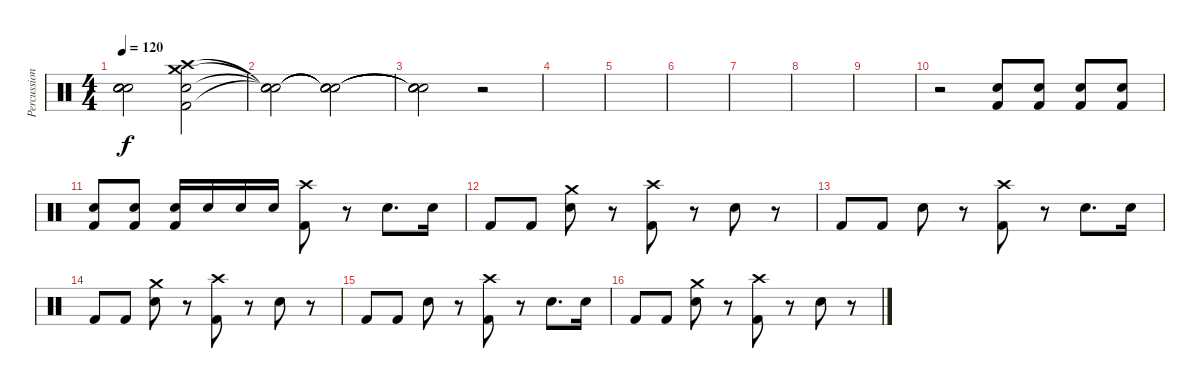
\track ("Percussions" "Percussion") {instrument percussion}
\staff {score}
\articulation defaults
\ts (4 4)
\tempo 120
\clef neutral
\ks c
("Snare (hit)"{t} "Snare (hit)"{t} "Snare (hit)"{t} "Snare (hit)"{t}).2{dy f} ("Crash medium (hit)" "Crash high (hit)" "Electric Snare (hit)" "Kick (hit) 2").2 |
("Snare (hit)"{t} "Snare (hit)"{t} "Snare (hit)"{t} "Snare (hit)"{t}).2 ("Snare (hit)"{t} "Snare (hit)"{t} "Snare (hit)"{t} "Snare (hit)"{t}).2 |
("Snare (hit)"{t} "Snare (hit)"{t} "Snare (hit)"{t} "Snare (hit)"{t}).2 r.2 |
|
|
|
|
|
|
r.2 ("Electric Snare (hit)" "Kick (hit) 2").8 ("Electric Snare (hit)" "Kick (hit) 2").8 ("Electric Snare (hit)" "Kick (hit) 2").8 ("Electric Snare (hit)" "Kick (hit) 2").8 |
("Electric Snare (hit)" "Kick (hit) 2").8 ("Electric Snare (hit)" "Kick (hit) 2").8 ("Electric Snare (hit)" "Kick (hit) 2").16 "Electric Snare (hit)".16 "Electric Snare (hit)".16 "Electric Snare (hit)".16 ("Crash high (hit)" "Kick (hit) 2").8 r.8 "Electric Snare (hit)".8{d} "Electric Snare (hit)".16 |
"Kick (hit) 2".8 "Kick (hit) 2".8 ("Crash medium (hit)" "Electric Snare (hit)").8 r.8 ("Crash high (hit)" "Kick (hit) 2").8 r.8 "Electric Snare (hit)".8 r.8 |
"Kick (hit) 2".8 "Kick (hit) 2".8 "Electric Snare (hit)".8 r.8 ("Crash high (hit)" "Kick (hit) 2").8 r.8 "Electric Snare (hit)".8{d} "Electric Snare (hit)".16 |
"Kick (hit) 2".8 "Kick (hit) 2".8 ("Crash medium (hit)" "Electric Snare (hit)").8 r.8 ("Crash high (hit)" "Kick (hit) 2").8 r.8 "Electric Snare (hit)".8 r.8 |
"Kick (hit) 2".8 "Kick (hit) 2".8 "Electric Snare (hit)".8 r.8 ("Crash high (hit)" "Kick (hit) 2").8 r.8 "Electric Snare (hit)".8{d} "Electric Snare (hit)".16 |
"Kick (hit) 2".8 "Kick (hit) 2".8 ("Crash medium (hit)" "Electric Snare (hit)").8 r.8 ("Crash high (hit)" "Kick (hit) 2").8 r.8 "Electric Snare (hit)".8 r.8
